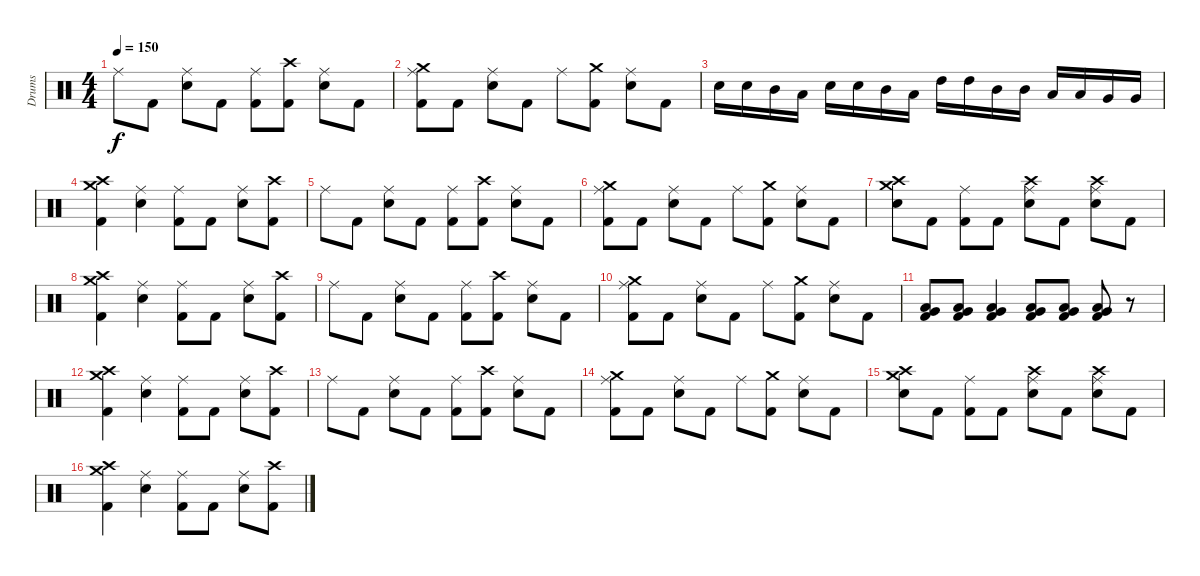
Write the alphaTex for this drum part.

\track ("Drums" "Drums") {instrument percussion}
\staff {score}
\articulation defaults
\ts (4 4)
\tempo 150
\clef neutral
\ks c "Ride (middle)".8{dy f} "Kick (hit) 2".8
("Ride (middle)" "Snare (hit) 2").8 "Kick (hit) 2".8 ("Ride (middle)" "Kick (hit) 2").8 ("Crash high (hit)" "Kick (hit) 2").8 ("Ride (middle)" "Snare (hit) 2").8 "Kick (hit) 2".8 |
("Crash medium (hit)" "Ride (middle)" "Kick (hit) 2").8 "Kick (hit) 2".8 ("Ride (middle)" "Snare (hit) 2").8 "Kick (hit) 2".8 "Ride (middle)".8 ("Crash medium (hit)" "Kick (hit) 2").8 ("Ride (middle)" "Snare (hit) 2").8 "Kick (hit) 2".8 |
"Snare (hit) 2".16 "Snare (hit) 2".16 "Mid Tom (hit)".16 "Low Tom (hit)".16 "Snare (hit) 2".16 "Snare (hit) 2".16 "Mid Tom (hit)".16 "Low Tom (hit)".16 "High Tom (hit)".16 "High Tom (hit)".16 "Mid Tom (hit)".16 "Mid Tom (hit)".16 "Low Tom (hit)".16 "Low Tom (hit)".16 "Very Low Tom (hit)".16 "Very Low Tom (hit)".16 |
("Crash medium (hit)" "Crash high (hit)" "Kick (hit) 2").4 ("Ride (middle)" "Snare (hit) 2").4 ("Ride (middle)" "Kick (hit) 2").8 "Kick (hit) 2".8 ("Ride (middle)" "Snare (hit) 2").8 ("Crash high (hit)" "Kick (hit) 2").8 |
"Ride (middle)".8 "Kick (hit) 2".8 ("Ride (middle)" "Snare (hit) 2").8 "Kick (hit) 2".8 ("Ride (middle)" "Kick (hit) 2").8 ("Crash high (hit)" "Kick (hit) 2").8 ("Ride (middle)" "Snare (hit) 2").8 "Kick (hit) 2".8 |
("Crash medium (hit)" "Ride (middle)" "Kick (hit) 2").8 "Kick (hit) 2".8 ("Ride (middle)" "Snare (hit) 2").8 "Kick (hit) 2".8 "Ride (middle)".8 ("Crash medium (hit)" "Kick (hit) 2").8 ("Ride (middle)" "Snare (hit) 2").8 "Kick (hit) 2".8 |
("Crash medium (hit)" "Crash high (hit)" "Snare (hit) 2").8 "Kick (hit) 2".8 ("Ride (middle)" "Kick (hit) 2").8 "Kick (hit) 2".8 ("Ride (middle)" "Crash high (hit)" "Snare (hit) 2").8 "Kick (hit) 2".8 ("Ride (middle)" "Crash high (hit)" "Snare (hit) 2").8 "Kick (hit) 2".8 |
("Crash medium (hit)" "Crash high (hit)" "Kick (hit) 2").4 ("Ride (middle)" "Snare (hit) 2").4 ("Ride (middle)" "Kick (hit) 2").8 "Kick (hit) 2".8 ("Ride (middle)" "Snare (hit) 2").8 ("Crash high (hit)" "Kick (hit) 2").8 |
"Ride (middle)".8 "Kick (hit) 2".8 ("Ride (middle)" "Snare (hit) 2").8 "Kick (hit) 2".8 ("Ride (middle)" "Kick (hit) 2").8 ("Crash high (hit)" "Kick (hit) 2").8 ("Ride (middle)" "Snare (hit) 2").8 "Kick (hit) 2".8 |
("Crash medium (hit)" "Ride (middle)" "Kick (hit) 2").8 "Kick (hit) 2".8 ("Ride (middle)" "Snare (hit) 2").8 "Kick (hit) 2".8 "Ride (middle)".8 ("Crash medium (hit)" "Kick (hit) 2").8 ("Ride (middle)" "Snare (hit) 2").8 "Kick (hit) 2".8 |
("Low Tom (hit)" "Very Low Tom (hit)" "Kick (hit) 2").8 ("Low Tom (hit)" "Very Low Tom (hit)" "Kick (hit) 2").8 ("Low Tom (hit)" "Very Low Tom (hit)" "Kick (hit) 2").4 ("Very Low Tom (hit)" "Low Floor Tom (hit)" "Kick (hit) 2").8 ("Very Low Tom (hit)" "Low Floor Tom (hit)" "Kick (hit) 2").8 ("Very Low Tom (hit)" "Low Floor Tom (hit)" "Kick (hit) 2").8 r.8 |
("Crash medium (hit)" "Crash high (hit)" "Kick (hit) 2").4 ("Ride (middle)" "Snare (hit) 2").4 ("Ride (middle)" "Kick (hit) 2").8 "Kick (hit) 2".8 ("Ride (middle)" "Snare (hit) 2").8 ("Crash high (hit)" "Kick (hit) 2").8 |
"Ride (middle)".8 "Kick (hit) 2".8 ("Ride (middle)" "Snare (hit) 2").8 "Kick (hit) 2".8 ("Ride (middle)" "Kick (hit) 2").8 ("Crash high (hit)" "Kick (hit) 2").8 ("Ride (middle)" "Snare (hit) 2").8 "Kick (hit) 2".8 |
("Crash medium (hit)" "Ride (middle)" "Kick (hit) 2").8 "Kick (hit) 2".8 ("Ride (middle)" "Snare (hit) 2").8 "Kick (hit) 2".8 "Ride (middle)".8 ("Crash medium (hit)" "Kick (hit) 2").8 ("Ride (middle)" "Snare (hit) 2").8 "Kick (hit) 2".8 |
("Crash medium (hit)" "Crash high (hit)" "Snare (hit) 2").8 "Kick (hit) 2".8 ("Ride (middle)" "Kick (hit) 2").8 "Kick (hit) 2".8 ("Ride (middle)" "Crash high (hit)" "Snare (hit) 2").8 "Kick (hit) 2".8 ("Ride (middle)" "Crash high (hit)" "Snare (hit) 2").8 "Kick (hit) 2".8 |
("Crash medium (hit)" "Crash high (hit)" "Kick (hit) 2").4 ("Ride (middle)" "Snare (hit) 2").4 ("Ride (middle)" "Kick (hit) 2").8 "Kick (hit) 2".8 ("Ride (middle)" "Snare (hit) 2").8 ("Crash high (hit)" "Kick (hit) 2").8
